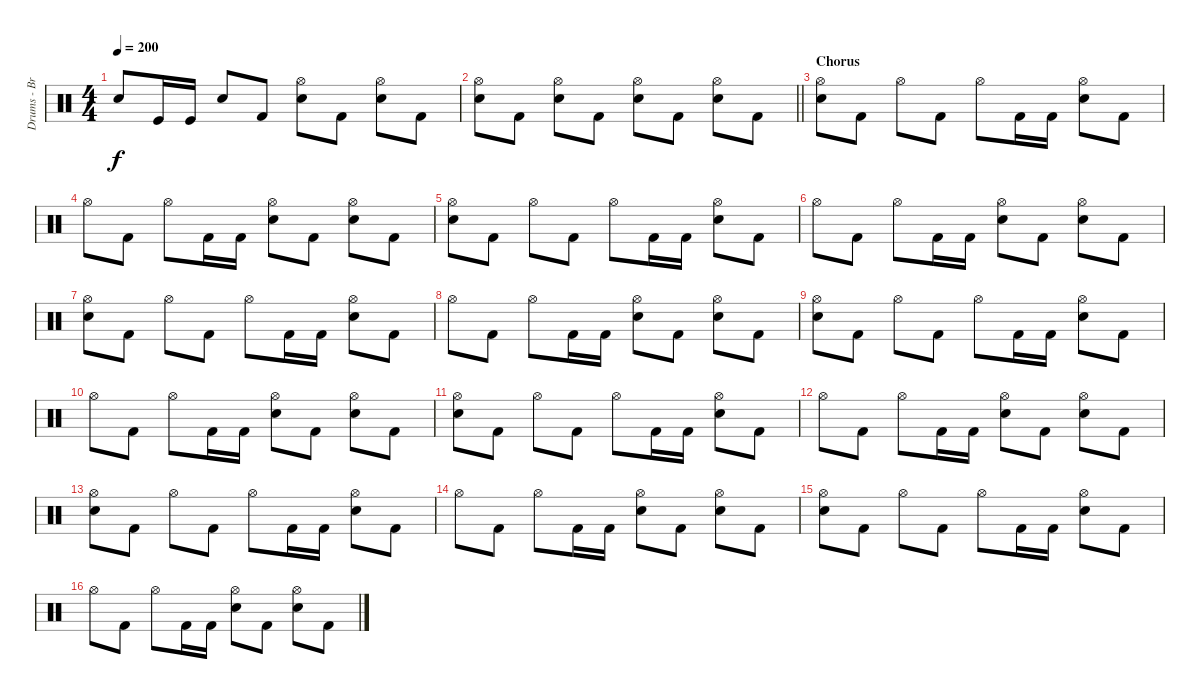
\track ("Drums - Brandon Barnes" "Drums - Br") {instrument percussion}
\staff {score}
\articulation defaults
\ts (4 4)
\tempo 200
\clef neutral
\ks c "Snare (hit) 2".8{dy f} "Kick (hit)".16 "Kick (hit)".16 "Snare (hit) 2".8 "Kick (hit) 2".8
("Snare (hit) 2" "Hi-Hat (open)").8 "Kick (hit) 2".8 ("Snare (hit) 2" "Hi-Hat (open)").8 "Kick (hit) 2".8 |
\barLineRight lightlight
("Snare (hit) 2" "Hi-Hat (open)").8 "Kick (hit) 2".8 ("Snare (hit) 2" "Hi-Hat (open)").8 "Kick (hit) 2".8 ("Snare (hit) 2" "Hi-Hat (open)").8 "Kick (hit) 2".8 ("Snare (hit) 2" "Hi-Hat (open)").8 "Kick (hit) 2".8 |
\section ("" "Chorus")
("Electric Snare (hit)" "Hi-Hat (open)").8 "Kick (hit) 2".8 "Hi-Hat (open)".8 "Kick (hit) 2".8 "Hi-Hat (open)".8 "Kick (hit) 2".16 "Kick (hit) 2".16 ("Electric Snare (hit)" "Hi-Hat (open)").8 "Kick (hit) 2".8 |
"Hi-Hat (open)".8 "Kick (hit) 2".8 "Hi-Hat (open)".8 "Kick (hit) 2".16 "Kick (hit) 2".16 ("Electric Snare (hit)" "Hi-Hat (open)").8 "Kick (hit) 2".8 ("Snare (hit) 2" "Hi-Hat (open)").8 "Kick (hit) 2".8 |
("Electric Snare (hit)" "Hi-Hat (open)").8 "Kick (hit) 2".8 "Hi-Hat (open)".8 "Kick (hit) 2".8 "Hi-Hat (open)".8 "Kick (hit) 2".16 "Kick (hit) 2".16 ("Electric Snare (hit)" "Hi-Hat (open)").8 "Kick (hit) 2".8 |
"Hi-Hat (open)".8 "Kick (hit) 2".8 "Hi-Hat (open)".8 "Kick (hit) 2".16 "Kick (hit) 2".16 ("Electric Snare (hit)" "Hi-Hat (open)").8 "Kick (hit) 2".8 ("Snare (hit) 2" "Hi-Hat (open)").8 "Kick (hit) 2".8 |
("Electric Snare (hit)" "Hi-Hat (open)").8 "Kick (hit) 2".8 "Hi-Hat (open)".8 "Kick (hit) 2".8 "Hi-Hat (open)".8 "Kick (hit) 2".16 "Kick (hit) 2".16 ("Electric Snare (hit)" "Hi-Hat (open)").8 "Kick (hit) 2".8 |
"Hi-Hat (open)".8 "Kick (hit) 2".8 "Hi-Hat (open)".8 "Kick (hit) 2".16 "Kick (hit) 2".16 ("Electric Snare (hit)" "Hi-Hat (open)").8 "Kick (hit) 2".8 ("Snare (hit) 2" "Hi-Hat (open)").8 "Kick (hit) 2".8 |
("Electric Snare (hit)" "Hi-Hat (open)").8 "Kick (hit) 2".8 "Hi-Hat (open)".8 "Kick (hit) 2".8 "Hi-Hat (open)".8 "Kick (hit) 2".16 "Kick (hit) 2".16 ("Electric Snare (hit)" "Hi-Hat (open)").8 "Kick (hit) 2".8 |
"Hi-Hat (open)".8 "Kick (hit) 2".8 "Hi-Hat (open)".8 "Kick (hit) 2".16 "Kick (hit) 2".16 ("Electric Snare (hit)" "Hi-Hat (open)").8 "Kick (hit) 2".8 ("Snare (hit) 2" "Hi-Hat (open)").8 "Kick (hit) 2".8 |
("Electric Snare (hit)" "Hi-Hat (open)").8 "Kick (hit) 2".8 "Hi-Hat (open)".8 "Kick (hit) 2".8 "Hi-Hat (open)".8 "Kick (hit) 2".16 "Kick (hit) 2".16 ("Electric Snare (hit)" "Hi-Hat (open)").8 "Kick (hit) 2".8 |
"Hi-Hat (open)".8 "Kick (hit) 2".8 "Hi-Hat (open)".8 "Kick (hit) 2".16 "Kick (hit) 2".16 ("Electric Snare (hit)" "Hi-Hat (open)").8 "Kick (hit) 2".8 ("Snare (hit) 2" "Hi-Hat (open)").8 "Kick (hit) 2".8 |
("Electric Snare (hit)" "Hi-Hat (open)").8 "Kick (hit) 2".8 "Hi-Hat (open)".8 "Kick (hit) 2".8 "Hi-Hat (open)".8 "Kick (hit) 2".16 "Kick (hit) 2".16 ("Electric Snare (hit)" "Hi-Hat (open)").8 "Kick (hit) 2".8 |
"Hi-Hat (open)".8 "Kick (hit) 2".8 "Hi-Hat (open)".8 "Kick (hit) 2".16 "Kick (hit) 2".16 ("Electric Snare (hit)" "Hi-Hat (open)").8 "Kick (hit) 2".8 ("Snare (hit) 2" "Hi-Hat (open)").8 "Kick (hit) 2".8 |
("Electric Snare (hit)" "Hi-Hat (open)").8 "Kick (hit) 2".8 "Hi-Hat (open)".8 "Kick (hit) 2".8 "Hi-Hat (open)".8 "Kick (hit) 2".16 "Kick (hit) 2".16 ("Electric Snare (hit)" "Hi-Hat (open)").8 "Kick (hit) 2".8 |
"Hi-Hat (open)".8 "Kick (hit) 2".8 "Hi-Hat (open)".8 "Kick (hit) 2".16 "Kick (hit) 2".16 ("Electric Snare (hit)" "Hi-Hat (open)").8 "Kick (hit) 2".8 ("Snare (hit) 2" "Hi-Hat (open)").8 "Kick (hit) 2".8
